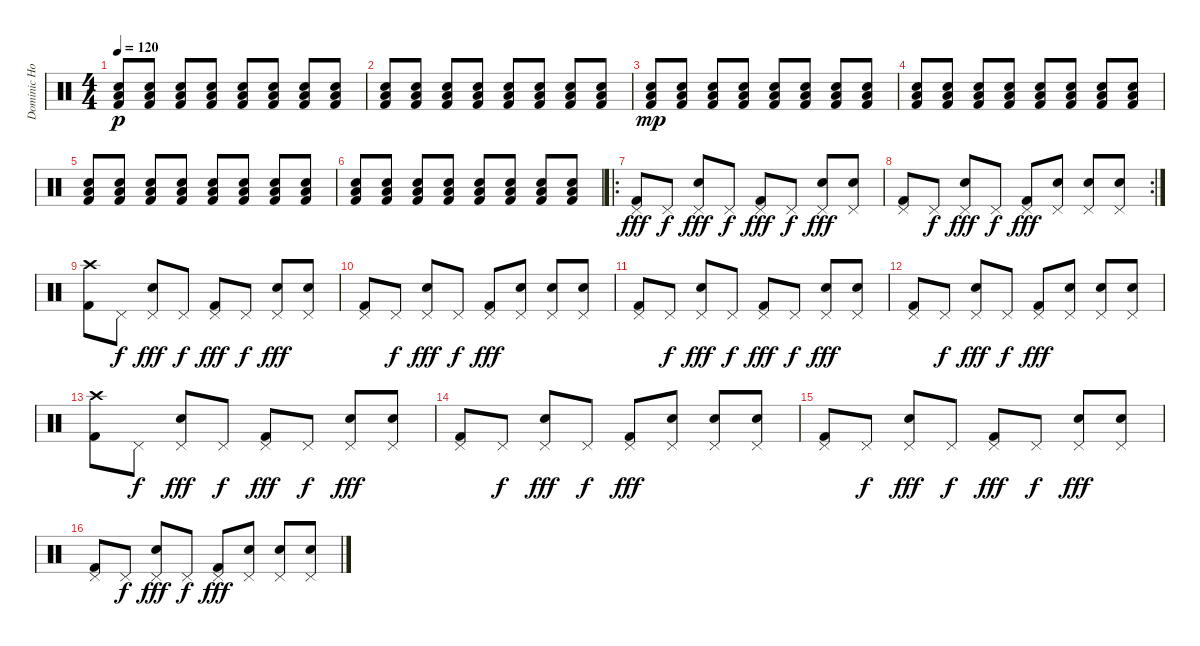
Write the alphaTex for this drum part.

\track ("Dominic Howard" "Dominic Ho") {instrument percussion}
\staff {score}
\articulation defaults
\ts (4 4)
\tempo 120
\clef neutral
\ks c
("Snare (hit) 2" "Low Floor Tom (hit)" "Kick (hit) 2").8{dy p} ("Snare (hit) 2" "Low Floor Tom (hit)" "Kick (hit) 2").8 ("Snare (hit) 2" "Low Floor Tom (hit)" "Kick (hit) 2").8 ("Snare (hit) 2" "Low Floor Tom (hit)" "Kick (hit) 2").8 ("Snare (hit) 2" "Low Floor Tom (hit)" "Kick (hit) 2").8 ("Snare (hit) 2" "Low Floor Tom (hit)" "Kick (hit) 2").8 ("Snare (hit) 2" "Low Floor Tom (hit)" "Kick (hit) 2").8 ("Snare (hit) 2" "Low Floor Tom (hit)" "Kick (hit) 2").8 |
("Snare (hit) 2" "Low Floor Tom (hit)" "Kick (hit) 2").8 ("Snare (hit) 2" "Low Floor Tom (hit)" "Kick (hit) 2").8 ("Snare (hit) 2" "Low Floor Tom (hit)" "Kick (hit) 2").8 ("Snare (hit) 2" "Low Floor Tom (hit)" "Kick (hit) 2").8 ("Snare (hit) 2" "Low Floor Tom (hit)" "Kick (hit) 2").8 ("Snare (hit) 2" "Low Floor Tom (hit)" "Kick (hit) 2").8 ("Snare (hit) 2" "Low Floor Tom (hit)" "Kick (hit) 2").8 ("Snare (hit) 2" "Low Floor Tom (hit)" "Kick (hit) 2").8 |
("Snare (hit) 2" "Low Floor Tom (hit)" "Kick (hit) 2").8{dy mp volume 16} ("Snare (hit) 2" "Low Floor Tom (hit)" "Kick (hit) 2").8 ("Snare (hit) 2" "Low Floor Tom (hit)" "Kick (hit) 2").8 ("Snare (hit) 2" "Low Floor Tom (hit)" "Kick (hit) 2").8 ("Snare (hit) 2" "Low Floor Tom (hit)" "Kick (hit) 2").8 ("Snare (hit) 2" "Low Floor Tom (hit)" "Kick (hit) 2").8 ("Snare (hit) 2" "Low Floor Tom (hit)" "Kick (hit) 2").8 ("Snare (hit) 2" "Low Floor Tom (hit)" "Kick (hit) 2").8 |
("Snare (hit) 2" "Low Floor Tom (hit)" "Kick (hit) 2").8 ("Snare (hit) 2" "Low Floor Tom (hit)" "Kick (hit) 2").8 ("Snare (hit) 2" "Low Floor Tom (hit)" "Kick (hit) 2").8 ("Snare (hit) 2" "Low Floor Tom (hit)" "Kick (hit) 2").8 ("Snare (hit) 2" "Low Floor Tom (hit)" "Kick (hit) 2").8 ("Snare (hit) 2" "Low Floor Tom (hit)" "Kick (hit) 2").8 ("Snare (hit) 2" "Low Floor Tom (hit)" "Kick (hit) 2").8 ("Snare (hit) 2" "Low Floor Tom (hit)" "Kick (hit) 2").8 |
("Snare (hit) 2" "Low Floor Tom (hit)" "Kick (hit) 2").8 ("Snare (hit) 2" "Low Floor Tom (hit)" "Kick (hit) 2").8 ("Snare (hit) 2" "Low Floor Tom (hit)" "Kick (hit) 2").8 ("Snare (hit) 2" "Low Floor Tom (hit)" "Kick (hit) 2").8 ("Snare (hit) 2" "Low Floor Tom (hit)" "Kick (hit) 2").8 ("Snare (hit) 2" "Low Floor Tom (hit)" "Kick (hit) 2").8 ("Snare (hit) 2" "Low Floor Tom (hit)" "Kick (hit) 2").8 ("Snare (hit) 2" "Low Floor Tom (hit)" "Kick (hit) 2").8 |
("Snare (hit) 2" "Low Floor Tom (hit)" "Kick (hit) 2").8 ("Snare (hit) 2" "Low Floor Tom (hit)" "Kick (hit) 2").8 ("Snare (hit) 2" "Low Floor Tom (hit)" "Kick (hit) 2").8 ("Snare (hit) 2" "Low Floor Tom (hit)" "Kick (hit) 2").8 ("Snare (hit) 2" "Low Floor Tom (hit)" "Kick (hit) 2").8 ("Snare (hit) 2" "Low Floor Tom (hit)" "Kick (hit) 2").8 ("Snare (hit) 2" "Low Floor Tom (hit)" "Kick (hit) 2").8 ("Snare (hit) 2" "Low Floor Tom (hit)" "Kick (hit) 2").8 |
\ro
("Pedal Hi-Hat (hit)" "Kick (hit) 2").8{dy fff} "Pedal Hi-Hat (hit)".8{dy f} ("Pedal Hi-Hat (hit)" "Snare (hit) 2").8{dy fff} "Pedal Hi-Hat (hit)".8{dy f} ("Pedal Hi-Hat (hit)" "Kick (hit) 2").8{dy fff} "Pedal Hi-Hat (hit)".8{dy f} ("Pedal Hi-Hat (hit)" "Snare (hit) 2").8{dy fff} ("Pedal Hi-Hat (hit)" "Snare (hit) 2").8 |
\rc 2
("Pedal Hi-Hat (hit)" "Kick (hit) 2").8 "Pedal Hi-Hat (hit)".8{dy f} ("Pedal Hi-Hat (hit)" "Snare (hit) 2").8{dy fff} "Pedal Hi-Hat (hit)".8{dy f} ("Pedal Hi-Hat (hit)" "Kick (hit) 2").8{dy fff} ("Pedal Hi-Hat (hit)" "Snare (hit) 2").8 ("Pedal Hi-Hat (hit)" "Snare (hit) 2").8 ("Pedal Hi-Hat (hit)" "Snare (hit) 2").8 |
("Crash high (hit)" "Kick (hit) 2").8 "Pedal Hi-Hat (hit)".8{dy f} ("Pedal Hi-Hat (hit)" "Snare (hit) 2").8{dy fff} "Pedal Hi-Hat (hit)".8{dy f} ("Pedal Hi-Hat (hit)" "Kick (hit) 2").8{dy fff} "Pedal Hi-Hat (hit)".8{dy f} ("Pedal Hi-Hat (hit)" "Snare (hit) 2").8{dy fff} ("Pedal Hi-Hat (hit)" "Snare (hit) 2").8 |
("Pedal Hi-Hat (hit)" "Kick (hit) 2").8 "Pedal Hi-Hat (hit)".8{dy f} ("Pedal Hi-Hat (hit)" "Snare (hit) 2").8{dy fff} "Pedal Hi-Hat (hit)".8{dy f} ("Pedal Hi-Hat (hit)" "Kick (hit) 2").8{dy fff} ("Pedal Hi-Hat (hit)" "Snare (hit) 2").8 ("Pedal Hi-Hat (hit)" "Snare (hit) 2").8 ("Pedal Hi-Hat (hit)" "Snare (hit) 2").8 |
("Pedal Hi-Hat (hit)" "Kick (hit) 2").8 "Pedal Hi-Hat (hit)".8{dy f} ("Pedal Hi-Hat (hit)" "Snare (hit) 2").8{dy fff} "Pedal Hi-Hat (hit)".8{dy f} ("Pedal Hi-Hat (hit)" "Kick (hit) 2").8{dy fff} "Pedal Hi-Hat (hit)".8{dy f} ("Pedal Hi-Hat (hit)" "Snare (hit) 2").8{dy fff} ("Pedal Hi-Hat (hit)" "Snare (hit) 2").8 |
("Pedal Hi-Hat (hit)" "Kick (hit) 2").8 "Pedal Hi-Hat (hit)".8{dy f} ("Pedal Hi-Hat (hit)" "Snare (hit) 2").8{dy fff} "Pedal Hi-Hat (hit)".8{dy f} ("Pedal Hi-Hat (hit)" "Kick (hit) 2").8{dy fff} ("Pedal Hi-Hat (hit)" "Snare (hit) 2").8 ("Pedal Hi-Hat (hit)" "Snare (hit) 2").8 ("Pedal Hi-Hat (hit)" "Snare (hit) 2").8 |
("Crash high (hit)" "Kick (hit) 2").8 "Pedal Hi-Hat (hit)".8{dy f} ("Pedal Hi-Hat (hit)" "Snare (hit) 2").8{dy fff} "Pedal Hi-Hat (hit)".8{dy f} ("Pedal Hi-Hat (hit)" "Kick (hit) 2").8{dy fff} "Pedal Hi-Hat (hit)".8{dy f} ("Pedal Hi-Hat (hit)" "Snare (hit) 2").8{dy fff} ("Pedal Hi-Hat (hit)" "Snare (hit) 2").8 |
("Pedal Hi-Hat (hit)" "Kick (hit) 2").8 "Pedal Hi-Hat (hit)".8{dy f} ("Pedal Hi-Hat (hit)" "Snare (hit) 2").8{dy fff} "Pedal Hi-Hat (hit)".8{dy f} ("Pedal Hi-Hat (hit)" "Kick (hit) 2").8{dy fff} ("Pedal Hi-Hat (hit)" "Snare (hit) 2").8 ("Pedal Hi-Hat (hit)" "Snare (hit) 2").8 ("Pedal Hi-Hat (hit)" "Snare (hit) 2").8 |
("Pedal Hi-Hat (hit)" "Kick (hit) 2").8 "Pedal Hi-Hat (hit)".8{dy f} ("Pedal Hi-Hat (hit)" "Snare (hit) 2").8{dy fff} "Pedal Hi-Hat (hit)".8{dy f} ("Pedal Hi-Hat (hit)" "Kick (hit) 2").8{dy fff} "Pedal Hi-Hat (hit)".8{dy f} ("Pedal Hi-Hat (hit)" "Snare (hit) 2").8{dy fff} ("Pedal Hi-Hat (hit)" "Snare (hit) 2").8 |
("Pedal Hi-Hat (hit)" "Kick (hit) 2").8 "Pedal Hi-Hat (hit)".8{dy f} ("Pedal Hi-Hat (hit)" "Snare (hit) 2").8{dy fff} "Pedal Hi-Hat (hit)".8{dy f} ("Pedal Hi-Hat (hit)" "Kick (hit) 2").8{dy fff} ("Pedal Hi-Hat (hit)" "Snare (hit) 2").8 ("Pedal Hi-Hat (hit)" "Snare (hit) 2").8 ("Pedal Hi-Hat (hit)" "Snare (hit) 2").8
